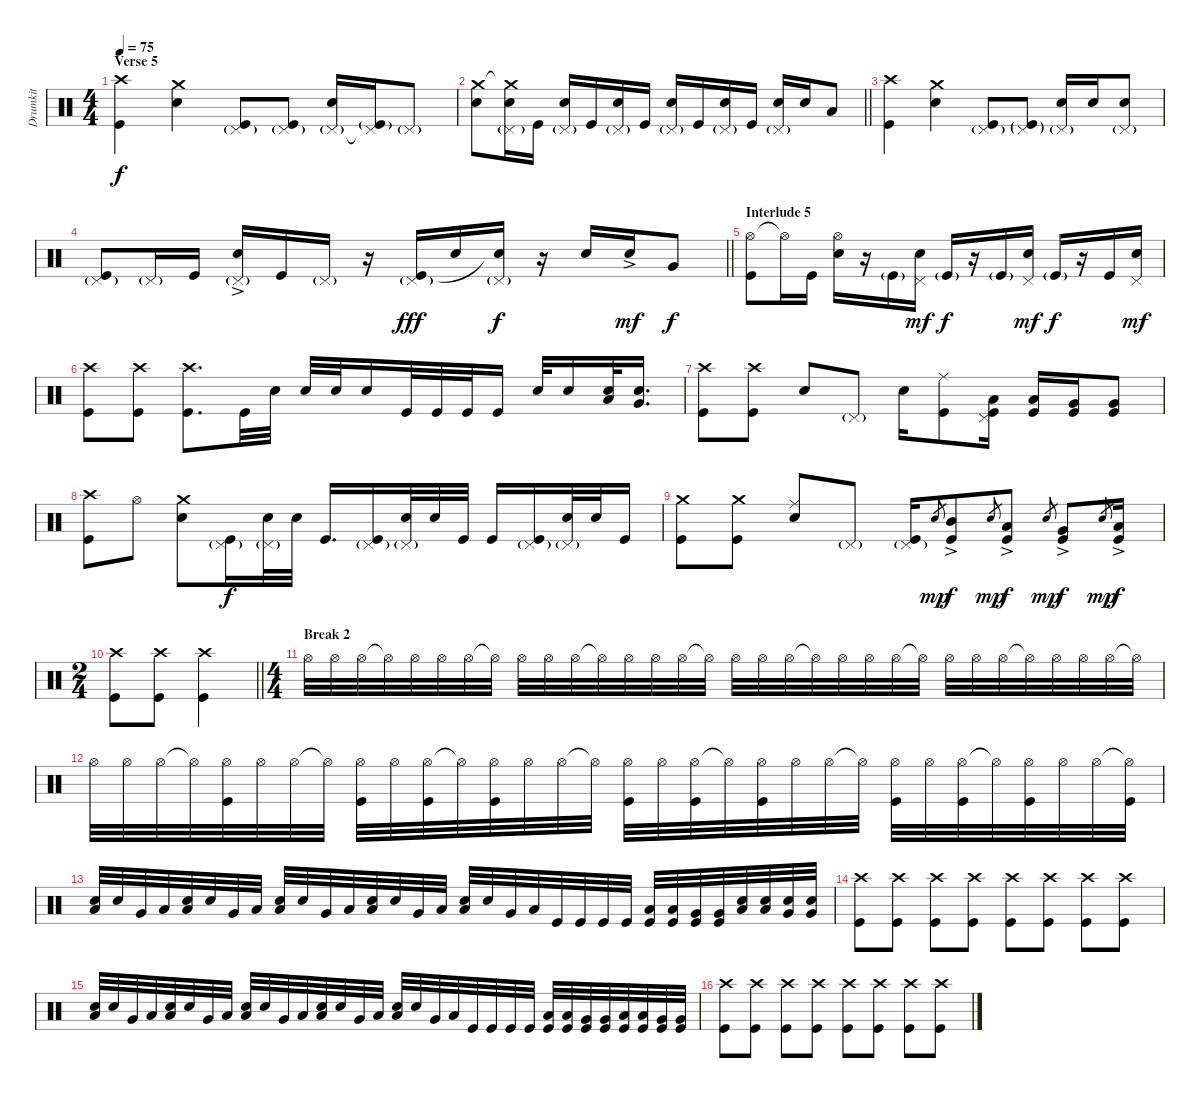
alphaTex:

\track ("Drumkit" "Drumkit") {instrument percussion}
\staff {score}
\articulation defaults
\ts (4 4)
\section ("" "Verse 5")
\tempo 75
\clef neutral
\ks c
("Crash high (hit)" "Kick (hit)").4{dy f} ("Crash medium (hit)" "Snare (hit) 2").4 ("Pedal Hi-Hat (hit)"{g} "Kick (hit)").8 ("Pedal Hi-Hat (hit)"{g} "Kick (hit)").8 ("Pedal Hi-Hat (hit)"{g} "Snare (hit) 2").16 ("Pedal Hi-Hat (hit)"{t} "Kick (hit)"{g}).16 "Pedal Hi-Hat (hit)"{g}.8 |
\barLineRight lightlight
("Crash medium (hit)" "Snare (hit) 2").8 ("Crash medium (hit)"{t} "Pedal Hi-Hat (hit)"{g} "Snare (hit) 2").16 "Kick (hit)".16 ("Pedal Hi-Hat (hit)"{g} "Snare (hit) 2").16 "Kick (hit)".16 ("Pedal Hi-Hat (hit)"{g} "Snare (hit) 2").16 "Kick (hit)".16 ("Pedal Hi-Hat (hit)"{g} "Snare (hit) 2").16 "Kick (hit)".16 ("Pedal Hi-Hat (hit)"{g} "Snare (hit) 2").16 "Kick (hit)".16 ("Pedal Hi-Hat (hit)"{g} "Snare (hit) 2").16 "Snare (hit) 2".16 "Low Tom (hit)".8 |
("Crash high (hit)" "Kick (hit)").4 ("Crash medium (hit)" "Snare (hit) 2").4 ("Pedal Hi-Hat (hit)"{g} "Kick (hit)").8 ("Pedal Hi-Hat (hit)"{g} "Kick (hit)"{g}).8 ("Pedal Hi-Hat (hit)"{g} "Snare (hit) 2").16 "Snare (hit) 2".16 ("Pedal Hi-Hat (hit)"{g} "Snare (hit) 2").8 |
\barLineRight lightlight
("Pedal Hi-Hat (hit)"{g} "Kick (hit)").8 "Pedal Hi-Hat (hit)"{g}.16 "Kick (hit)".16 ("Pedal Hi-Hat (hit)"{g} "Snare (hit) 2"{ac}).16 "Kick (hit)".16 "Pedal Hi-Hat (hit)"{g}.16 r.16 ("Pedal Hi-Hat (hit)"{g} "Kick (hit)").16{dy fff} "Snare (hit) 2".16 ("Pedal Hi-Hat (hit)"{g} "Snare (hit) 2"{t}).16{dy f} r.16 "Snare (hit) 2".16 "Snare (hit) 2"{ac}.16{dy mf} "Very Low Tom (hit)".8{dy f} |
\section ("" "Interlude 5")
("Hi-Hat (open)" "Kick (hit)").8 "Hi-Hat (open)"{t}.16 "Kick (hit)".16 ("Hi-Hat (open)" "Snare (hit) 2").16 r.16 "Kick (hit)"{g}.16 ("Pedal Hi-Hat (hit)" "Snare (hit) 2").16{dy mf} "Kick (hit)"{g}.16{dy f} r.16 "Kick (hit)"{g}.16 ("Pedal Hi-Hat (hit)" "Snare (hit) 2").16{dy mf} "Kick (hit)"{g}.16{dy f} r.16 "Kick (hit)".16 ("Pedal Hi-Hat (hit)" "Snare (hit) 2").16{dy mf} |
("Crash high (hit)" "Kick (hit)").8 ("Crash high (hit)" "Kick (hit)").8 ("Crash high (hit)" "Kick (hit)").8{d} "Kick (hit)".32 "Snare (hit) 2".32 "Snare (hit) 2".32 "Snare (hit) 2".32 "Snare (hit) 2".16 "Kick (hit)".32 "Kick (hit)".32 "Kick (hit)".32 "Kick (hit)".16 "Snare (hit) 2".32 "Snare (hit) 2".16 ("Low Tom (hit)" "Snare (hit) 2").32 ("Very Low Tom (hit)" "Snare (hit) 2").16{d} |
("Crash high (hit)" "Kick (hit)").8 ("Crash high (hit)" "Kick (hit)").8 "Snare (hit) 2".8 "Pedal Hi-Hat (hit)"{g}.8 "Snare (hit) 2".16 ("Ride (middle)" "Kick (hit)").8 ("Pedal Hi-Hat (hit)" "Low Tom (hit)" "Kick (hit)").16 ("Low Tom (hit)" "Kick (hit)").16 ("Very Low Tom (hit)" "Kick (hit)").16 ("Very Low Tom (hit)" "Kick (hit)").8 |
("Crash high (hit)" "Kick (hit)").8 "Hi-Hat (open)".8 ("Crash medium (hit)" "Snare (hit) 2").8 ("Pedal Hi-Hat (hit)"{g} "Kick (hit)").16{dy f} ("Pedal Hi-Hat (hit)"{g} "Snare (hit) 2").32 "Snare (hit) 2".32 "Kick (hit)".16{d} ("Pedal Hi-Hat (hit)"{g} "Kick (hit)").16 ("Pedal Hi-Hat (hit)"{g} "Snare (hit) 2").32 "Snare (hit) 2".32 "Kick (hit)".32 "Kick (hit)".16 ("Pedal Hi-Hat (hit)"{g} "Kick (hit)").16 ("Pedal Hi-Hat (hit)"{g} "Snare (hit) 2").32 "Snare (hit) 2".32 "Kick (hit)".16 |
("Crash medium (hit)" "Kick (hit)").8 ("Crash medium (hit)" "Kick (hit)").8 ("Ride (middle)" "Snare (hit) 2").8 "Pedal Hi-Hat (hit)"{g}.8 ("Pedal Hi-Hat (hit)"{g} "Kick (hit)").16 "Snare (hit)".8{gr dy mp} ("Mid Tom (hit)"{ac} "Kick (hit)").8{dy f} "Snare (hit)".8{gr dy mp} ("Low Tom (hit)"{ac} "Kick (hit)").8{dy f} "Snare (hit)".8{gr dy mp} ("Very Low Tom (hit)"{ac} "Kick (hit)").8{dy f} "Snare (hit)".8{gr dy mp} ("Low Floor Tom (hit)"{ac} "Kick (hit)").16{dy f} |
\ts (2 4)
\barLineRight lightlight
("Crash high (hit)" "Kick (hit)").8 ("Crash high (hit)" "Kick (hit)").8 ("Crash high (hit)" "Kick (hit)").4 |
\ts (4 4)
\section ("" "Break 2")
"Hi-Hat (open)".32 "Hi-Hat (open)".32 "Hi-Hat (open)".32 "Hi-Hat (open)"{t}.32 "Hi-Hat (open)".32 "Hi-Hat (open)".32 "Hi-Hat (open)".32 "Hi-Hat (open)"{t}.32 "Hi-Hat (open)".32 "Hi-Hat (open)".32 "Hi-Hat (open)".32 "Hi-Hat (open)"{t}.32 "Hi-Hat (open)".32 "Hi-Hat (open)".32 "Hi-Hat (open)".32 "Hi-Hat (open)"{t}.32 "Hi-Hat (open)".32 "Hi-Hat (open)".32 "Hi-Hat (open)".32 "Hi-Hat (open)"{t}.32 "Hi-Hat (open)".32 "Hi-Hat (open)".32 "Hi-Hat (open)".32 "Hi-Hat (open)"{t}.32 "Hi-Hat (open)".32 "Hi-Hat (open)".32 "Hi-Hat (open)".32 "Hi-Hat (open)"{t}.32 "Hi-Hat (open)".32 "Hi-Hat (open)".32 "Hi-Hat (open)".32 "Hi-Hat (open)"{t}.32 |
"Hi-Hat (open)".32 "Hi-Hat (open)".32 "Hi-Hat (open)".32 "Hi-Hat (open)"{t}.32 ("Hi-Hat (open)" "Kick (hit)").32 "Hi-Hat (open)".32 "Hi-Hat (open)".32 "Hi-Hat (open)"{t}.32 ("Hi-Hat (open)" "Kick (hit)").32 "Hi-Hat (open)".32 ("Hi-Hat (open)" "Kick (hit)").32 "Hi-Hat (open)"{t}.32 ("Hi-Hat (open)" "Kick (hit)").32 "Hi-Hat (open)".32 "Hi-Hat (open)".32 "Hi-Hat (open)"{t}.32 ("Hi-Hat (open)" "Kick (hit)").32 "Hi-Hat (open)".32 ("Hi-Hat (open)" "Kick (hit)").32 "Hi-Hat (open)"{t}.32 ("Hi-Hat (open)" "Kick (hit)").32 "Hi-Hat (open)".32 "Hi-Hat (open)".32 "Hi-Hat (open)"{t}.32 ("Hi-Hat (open)" "Kick (hit)").32 "Hi-Hat (open)".32 ("Hi-Hat (open)" "Kick (hit)").32 "Hi-Hat (open)"{t}.32 ("Hi-Hat (open)" "Kick (hit)").32 "Hi-Hat (open)".32 "Hi-Hat (open)".32 ("Hi-Hat (open)"{t} "Kick (hit)").32 |
("Low Tom (hit)" "Snare (hit) 2").32 "Snare (hit) 2".32 "Very Low Tom (hit)".32 "Low Floor Tom (hit)".32 ("Low Tom (hit)" "Snare (hit) 2").32 "Snare (hit) 2".32 "Very Low Tom (hit)".32 "Low Floor Tom (hit)".32 ("Low Tom (hit)" "Snare (hit) 2").32 "Snare (hit) 2".32 "Very Low Tom (hit)".32 "Low Floor Tom (hit)".32 ("Low Tom (hit)" "Snare (hit) 2").32 "Snare (hit) 2".32 "Very Low Tom (hit)".32 "Low Floor Tom (hit)".32 ("Low Tom (hit)" "Snare (hit) 2").32 "Snare (hit) 2".32 "Very Low Tom (hit)".32 "Low Floor Tom (hit)".32 "Kick (hit)".32 "Kick (hit)".32 "Kick (hit)".32 "Kick (hit)".32 ("Low Floor Tom (hit)" "Kick (hit)").32 ("Low Floor Tom (hit)" "Kick (hit)").32 ("Very Low Tom (hit)" "Kick (hit)").32 ("Very Low Tom (hit)" "Kick (hit)").32 ("Low Floor Tom (hit)" "Snare (hit) 2").32 ("Low Floor Tom (hit)" "Snare (hit) 2").32 ("Very Low Tom (hit)" "Snare (hit) 2").32 ("Very Low Tom (hit)" "Snare (hit) 2").32 |
("Crash high (hit)" "Kick (hit)").8 ("Crash high (hit)" "Kick (hit)").8 ("Crash high (hit)" "Kick (hit)").8 ("Crash high (hit)" "Kick (hit)").8 ("Crash high (hit)" "Kick (hit)").8 ("Crash high (hit)" "Kick (hit)").8 ("Crash high (hit)" "Kick (hit)").8 ("Crash high (hit)" "Kick (hit)").8 |
("Low Tom (hit)" "Snare (hit) 2").32 "Snare (hit) 2".32 "Very Low Tom (hit)".32 "Low Floor Tom (hit)".32 ("Low Tom (hit)" "Snare (hit) 2").32 "Snare (hit) 2".32 "Very Low Tom (hit)".32 "Low Floor Tom (hit)".32 ("Low Tom (hit)" "Snare (hit) 2").32 "Snare (hit) 2".32 "Very Low Tom (hit)".32 "Low Floor Tom (hit)".32 ("Low Tom (hit)" "Snare (hit) 2").32 "Snare (hit) 2".32 "Very Low Tom (hit)".32 "Low Floor Tom (hit)".32 ("Low Tom (hit)" "Snare (hit) 2").32 "Snare (hit) 2".32 "Very Low Tom (hit)".32 "Low Floor Tom (hit)".32 "Kick (hit)".32 "Kick (hit)".32 "Kick (hit)".32 "Kick (hit)".32 ("Low Floor Tom (hit)" "Kick (hit)").32 ("Low Floor Tom (hit)" "Kick (hit)").32 ("Very Low Tom (hit)" "Kick (hit)").32 ("Very Low Tom (hit)" "Kick (hit)").32 ("Low Floor Tom (hit)" "Kick (hit)").32 ("Low Floor Tom (hit)" "Kick (hit)").32 ("Very Low Tom (hit)" "Kick (hit)").32 ("Very Low Tom (hit)" "Kick (hit)").32 |
("Crash high (hit)" "Kick (hit)").8 ("Crash high (hit)" "Kick (hit)").8 ("Crash high (hit)" "Kick (hit)").8 ("Crash high (hit)" "Kick (hit)").8 ("Crash high (hit)" "Kick (hit)").8 ("Crash high (hit)" "Kick (hit)").8 ("Crash high (hit)" "Kick (hit)").8 ("Crash high (hit)" "Kick (hit)").8
